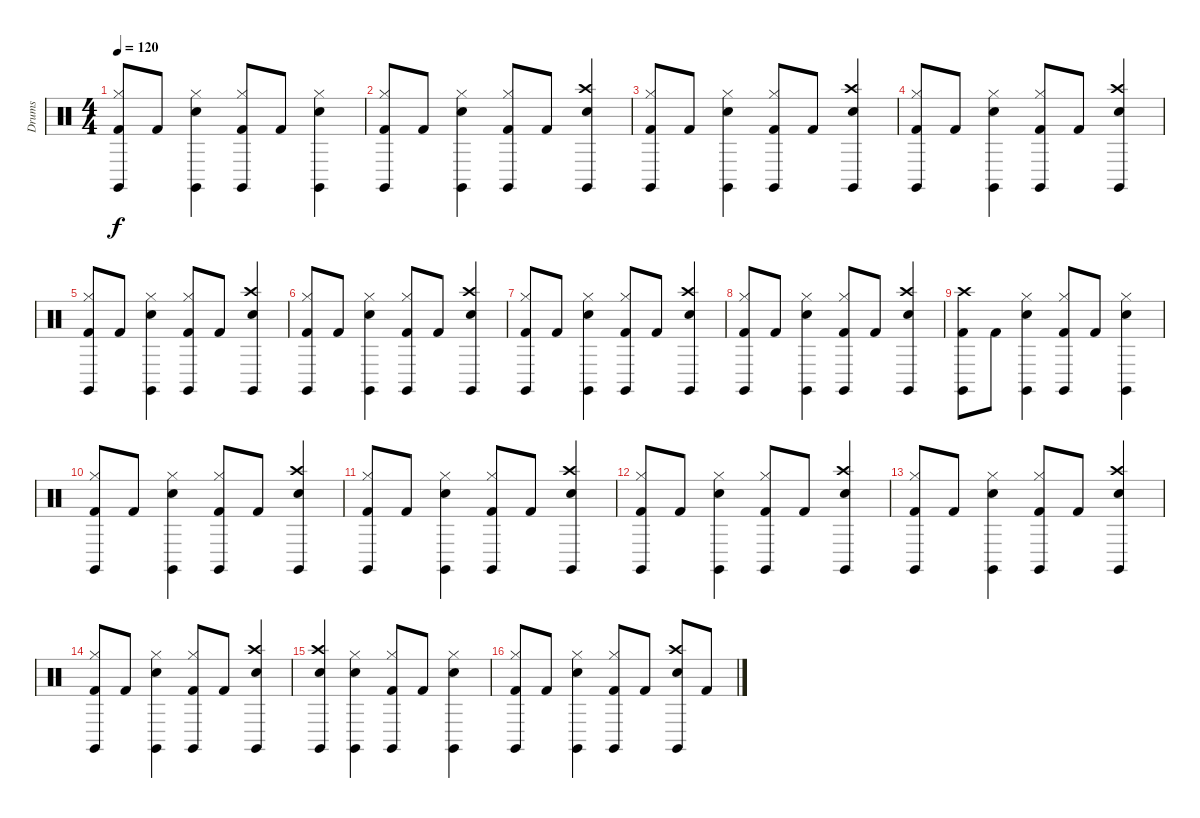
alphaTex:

\track ("Drums" "Drums") {instrument percussion}
\staff {score}
\articulation defaults
\ts (4 4)
\tempo 120
\clef neutral
\ks c
("Hi-Hat (closed)" "Kick (hit) 2" "Claves (hit)").8{dy f} "Kick (hit) 2".8 ("Hi-Hat (closed)" "Snare (hit) 2" "Claves (hit)").4 ("Hi-Hat (closed)" "Kick (hit) 2" "Claves (hit)").8 "Kick (hit) 2".8 ("Hi-Hat (closed)" "Snare (hit) 2" "Claves (hit)").4 |
("Hi-Hat (closed)" "Kick (hit) 2" "Claves (hit)").8 "Kick (hit) 2".8 ("Hi-Hat (closed)" "Snare (hit) 2" "Claves (hit)").4 ("Hi-Hat (closed)" "Kick (hit) 2" "Claves (hit)").8 "Kick (hit) 2".8 ("Crash high (hit)" "Snare (hit) 2" "Claves (hit)").4 |
("Hi-Hat (closed)" "Kick (hit) 2" "Claves (hit)").8 "Kick (hit) 2".8 ("Hi-Hat (closed)" "Snare (hit) 2" "Claves (hit)").4 ("Hi-Hat (closed)" "Kick (hit) 2" "Claves (hit)").8 "Kick (hit) 2".8 ("Crash high (hit)" "Snare (hit) 2" "Claves (hit)").4 |
("Hi-Hat (closed)" "Kick (hit) 2" "Claves (hit)").8 "Kick (hit) 2".8 ("Hi-Hat (closed)" "Snare (hit) 2" "Claves (hit)").4 ("Hi-Hat (closed)" "Kick (hit) 2" "Claves (hit)").8 "Kick (hit) 2".8 ("Crash high (hit)" "Snare (hit) 2" "Claves (hit)").4 |
("Hi-Hat (closed)" "Kick (hit) 2" "Claves (hit)").8 "Kick (hit) 2".8 ("Hi-Hat (closed)" "Snare (hit) 2" "Claves (hit)").4 ("Hi-Hat (closed)" "Kick (hit) 2" "Claves (hit)").8 "Kick (hit) 2".8 ("Crash high (hit)" "Snare (hit) 2" "Claves (hit)").4 |
("Hi-Hat (closed)" "Kick (hit) 2" "Claves (hit)").8 "Kick (hit) 2".8 ("Hi-Hat (closed)" "Snare (hit) 2" "Claves (hit)").4 ("Hi-Hat (closed)" "Kick (hit) 2" "Claves (hit)").8 "Kick (hit) 2".8 ("Crash high (hit)" "Snare (hit) 2" "Claves (hit)").4 |
("Hi-Hat (closed)" "Kick (hit) 2" "Claves (hit)").8 "Kick (hit) 2".8 ("Hi-Hat (closed)" "Snare (hit) 2" "Claves (hit)").4 ("Hi-Hat (closed)" "Kick (hit) 2" "Claves (hit)").8 "Kick (hit) 2".8 ("Crash high (hit)" "Snare (hit) 2" "Claves (hit)").4 |
("Hi-Hat (closed)" "Kick (hit) 2" "Claves (hit)").8 "Kick (hit) 2".8 ("Hi-Hat (closed)" "Snare (hit) 2" "Claves (hit)").4 ("Hi-Hat (closed)" "Kick (hit) 2" "Claves (hit)").8 "Kick (hit) 2".8 ("Crash high (hit)" "Snare (hit) 2" "Claves (hit)").4 |
("Crash high (hit)" "Kick (hit) 2" "Claves (hit)").8 "Kick (hit) 2".8 ("Hi-Hat (closed)" "Snare (hit) 2" "Claves (hit)").4 ("Hi-Hat (closed)" "Kick (hit) 2" "Claves (hit)").8 "Kick (hit) 2".8 ("Hi-Hat (closed)" "Snare (hit) 2" "Claves (hit)").4 |
("Hi-Hat (closed)" "Kick (hit) 2" "Claves (hit)").8 "Kick (hit) 2".8 ("Hi-Hat (closed)" "Snare (hit) 2" "Claves (hit)").4 ("Hi-Hat (closed)" "Kick (hit) 2" "Claves (hit)").8 "Kick (hit) 2".8 ("Crash high (hit)" "Snare (hit) 2" "Claves (hit)").4 |
("Hi-Hat (closed)" "Kick (hit) 2" "Claves (hit)").8 "Kick (hit) 2".8 ("Hi-Hat (closed)" "Snare (hit) 2" "Claves (hit)").4 ("Hi-Hat (closed)" "Kick (hit) 2" "Claves (hit)").8 "Kick (hit) 2".8 ("Crash high (hit)" "Snare (hit) 2" "Claves (hit)").4 |
("Hi-Hat (closed)" "Kick (hit) 2" "Claves (hit)").8 "Kick (hit) 2".8 ("Hi-Hat (closed)" "Snare (hit) 2" "Claves (hit)").4 ("Hi-Hat (closed)" "Kick (hit) 2" "Claves (hit)").8 "Kick (hit) 2".8 ("Crash high (hit)" "Snare (hit) 2" "Claves (hit)").4 |
("Hi-Hat (closed)" "Kick (hit) 2" "Claves (hit)").8 "Kick (hit) 2".8 ("Hi-Hat (closed)" "Snare (hit) 2" "Claves (hit)").4 ("Hi-Hat (closed)" "Kick (hit) 2" "Claves (hit)").8 "Kick (hit) 2".8 ("Crash high (hit)" "Snare (hit) 2" "Claves (hit)").4 |
("Hi-Hat (closed)" "Kick (hit) 2" "Claves (hit)").8 "Kick (hit) 2".8 ("Hi-Hat (closed)" "Snare (hit) 2" "Claves (hit)").4 ("Hi-Hat (closed)" "Kick (hit) 2" "Claves (hit)").8 "Kick (hit) 2".8 ("Crash high (hit)" "Snare (hit) 2" "Claves (hit)").4 |
("Crash high (hit)" "Snare (hit) 2" "Claves (hit)").4 ("Hi-Hat (closed)" "Snare (hit) 2" "Claves (hit)").4 ("Hi-Hat (closed)" "Kick (hit) 2" "Claves (hit)").8 "Kick (hit) 2".8 ("Hi-Hat (closed)" "Snare (hit) 2" "Claves (hit)").4 |
("Hi-Hat (closed)" "Kick (hit) 2" "Claves (hit)").8 "Kick (hit) 2".8 ("Hi-Hat (closed)" "Snare (hit) 2" "Claves (hit)").4 ("Hi-Hat (closed)" "Kick (hit) 2" "Claves (hit)").8 "Kick (hit) 2".8 ("Crash high (hit)" "Snare (hit) 2" "Claves (hit)").8 "Kick (hit) 2".8
